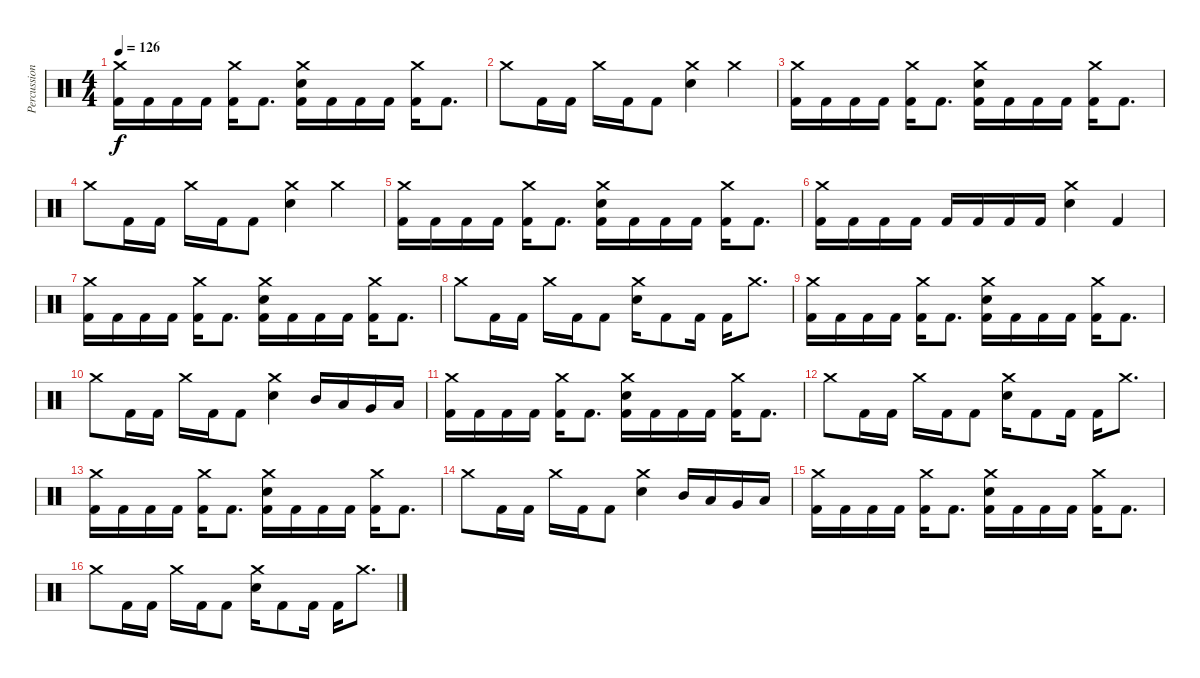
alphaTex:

\track ("Percussion" "Percussion") {instrument percussion}
\staff {score}
\articulation defaults
\ts (4 4)
\tempo 126
\clef neutral
\ks c
("Crash medium (hit)" "Kick (hit) 2").16{dy f} "Kick (hit) 2".16 "Kick (hit) 2".16 "Kick (hit) 2".16 ("Crash medium (hit)" "Kick (hit) 2").16 "Kick (hit) 2".8{d} ("Crash medium (hit)" "Electric Snare (hit)" "Kick (hit) 2").16 "Kick (hit) 2".16 "Kick (hit) 2".16 "Kick (hit) 2".16 ("Crash medium (hit)" "Kick (hit) 2").16 "Kick (hit) 2".8{d} |
"Crash medium (hit)".8 "Kick (hit) 2".16 "Kick (hit) 2".16 "Crash medium (hit)".16 "Kick (hit) 2".16 "Kick (hit) 2".8 ("Crash medium (hit)" "Electric Snare (hit)").4 "Crash medium (hit)".4 |
("Crash medium (hit)" "Kick (hit) 2").16 "Kick (hit) 2".16 "Kick (hit) 2".16 "Kick (hit) 2".16 ("Crash medium (hit)" "Kick (hit) 2").16 "Kick (hit) 2".8{d} ("Crash medium (hit)" "Electric Snare (hit)" "Kick (hit) 2").16 "Kick (hit) 2".16 "Kick (hit) 2".16 "Kick (hit) 2".16 ("Crash medium (hit)" "Kick (hit) 2").16 "Kick (hit) 2".8{d} |
"Crash medium (hit)".8 "Kick (hit) 2".16 "Kick (hit) 2".16 "Crash medium (hit)".16 "Kick (hit) 2".16 "Kick (hit) 2".8 ("Crash medium (hit)" "Electric Snare (hit)").4 "Crash medium (hit)".4 |
("Crash medium (hit)" "Kick (hit) 2").16 "Kick (hit) 2".16 "Kick (hit) 2".16 "Kick (hit) 2".16 ("Crash medium (hit)" "Kick (hit) 2").16 "Kick (hit) 2".8{d} ("Crash medium (hit)" "Electric Snare (hit)" "Kick (hit) 2").16 "Kick (hit) 2".16 "Kick (hit) 2".16 "Kick (hit) 2".16 ("Crash medium (hit)" "Kick (hit) 2").16 "Kick (hit) 2".8{d} |
("Crash medium (hit)" "Kick (hit) 2").16 "Kick (hit) 2".16 "Kick (hit) 2".16 "Kick (hit) 2".16 "Kick (hit) 2".16 "Kick (hit) 2".16 "Kick (hit) 2".16 "Kick (hit) 2".16 ("Crash medium (hit)" "Electric Snare (hit)").4 "Kick (hit) 2".4 |
("Crash medium (hit)" "Kick (hit) 2").16 "Kick (hit) 2".16 "Kick (hit) 2".16 "Kick (hit) 2".16 ("Crash medium (hit)" "Kick (hit) 2").16 "Kick (hit) 2".8{d} ("Crash medium (hit)" "Electric Snare (hit)" "Kick (hit) 2").16 "Kick (hit) 2".16 "Kick (hit) 2".16 "Kick (hit) 2".16 ("Crash medium (hit)" "Kick (hit) 2").16 "Kick (hit) 2".8{d} |
"Crash medium (hit)".8 "Kick (hit) 2".16 "Kick (hit) 2".16 "Crash medium (hit)".16 "Kick (hit) 2".16 "Kick (hit) 2".8 ("Crash medium (hit)" "Electric Snare (hit)").16 "Kick (hit) 2".8 "Kick (hit) 2".16 "Kick (hit) 2".16 "Crash medium (hit)".8{d} |
("Crash medium (hit)" "Kick (hit) 2").16 "Kick (hit) 2".16 "Kick (hit) 2".16 "Kick (hit) 2".16 ("Crash medium (hit)" "Kick (hit) 2").16 "Kick (hit) 2".8{d} ("Crash medium (hit)" "Electric Snare (hit)" "Kick (hit) 2").16 "Kick (hit) 2".16 "Kick (hit) 2".16 "Kick (hit) 2".16 ("Crash medium (hit)" "Kick (hit) 2").16 "Kick (hit) 2".8{d} |
"Crash medium (hit)".8 "Kick (hit) 2".16 "Kick (hit) 2".16 "Crash medium (hit)".16 "Kick (hit) 2".16 "Kick (hit) 2".8 ("Crash medium (hit)" "Electric Snare (hit)").4 "Mid Tom (hit)".16 "Low Tom (hit)".16 "Very Low Tom (hit)".16 "Low Floor Tom (hit)".16 |
("Crash medium (hit)" "Kick (hit) 2").16 "Kick (hit) 2".16 "Kick (hit) 2".16 "Kick (hit) 2".16 ("Crash medium (hit)" "Kick (hit) 2").16 "Kick (hit) 2".8{d} ("Crash medium (hit)" "Electric Snare (hit)" "Kick (hit) 2").16 "Kick (hit) 2".16 "Kick (hit) 2".16 "Kick (hit) 2".16 ("Crash medium (hit)" "Kick (hit) 2").16 "Kick (hit) 2".8{d} |
"Crash medium (hit)".8 "Kick (hit) 2".16 "Kick (hit) 2".16 "Crash medium (hit)".16 "Kick (hit) 2".16 "Kick (hit) 2".8 ("Crash medium (hit)" "Electric Snare (hit)").16 "Kick (hit) 2".8 "Kick (hit) 2".16 "Kick (hit) 2".16 "Crash medium (hit)".8{d} |
("Crash medium (hit)" "Kick (hit) 2").16 "Kick (hit) 2".16 "Kick (hit) 2".16 "Kick (hit) 2".16 ("Crash medium (hit)" "Kick (hit) 2").16 "Kick (hit) 2".8{d} ("Crash medium (hit)" "Electric Snare (hit)" "Kick (hit) 2").16 "Kick (hit) 2".16 "Kick (hit) 2".16 "Kick (hit) 2".16 ("Crash medium (hit)" "Kick (hit) 2").16 "Kick (hit) 2".8{d} |
"Crash medium (hit)".8 "Kick (hit) 2".16 "Kick (hit) 2".16 "Crash medium (hit)".16 "Kick (hit) 2".16 "Kick (hit) 2".8 ("Crash medium (hit)" "Electric Snare (hit)").4 "Mid Tom (hit)".16 "Low Tom (hit)".16 "Very Low Tom (hit)".16 "Low Floor Tom (hit)".16 |
("Crash medium (hit)" "Kick (hit) 2").16 "Kick (hit) 2".16 "Kick (hit) 2".16 "Kick (hit) 2".16 ("Crash medium (hit)" "Kick (hit) 2").16 "Kick (hit) 2".8{d} ("Crash medium (hit)" "Electric Snare (hit)" "Kick (hit) 2").16 "Kick (hit) 2".16 "Kick (hit) 2".16 "Kick (hit) 2".16 ("Crash medium (hit)" "Kick (hit) 2").16 "Kick (hit) 2".8{d} |
"Crash medium (hit)".8 "Kick (hit) 2".16 "Kick (hit) 2".16 "Crash medium (hit)".16 "Kick (hit) 2".16 "Kick (hit) 2".8 ("Crash medium (hit)" "Electric Snare (hit)").16 "Kick (hit) 2".8 "Kick (hit) 2".16 "Kick (hit) 2".16 "Crash medium (hit)".8{d}
